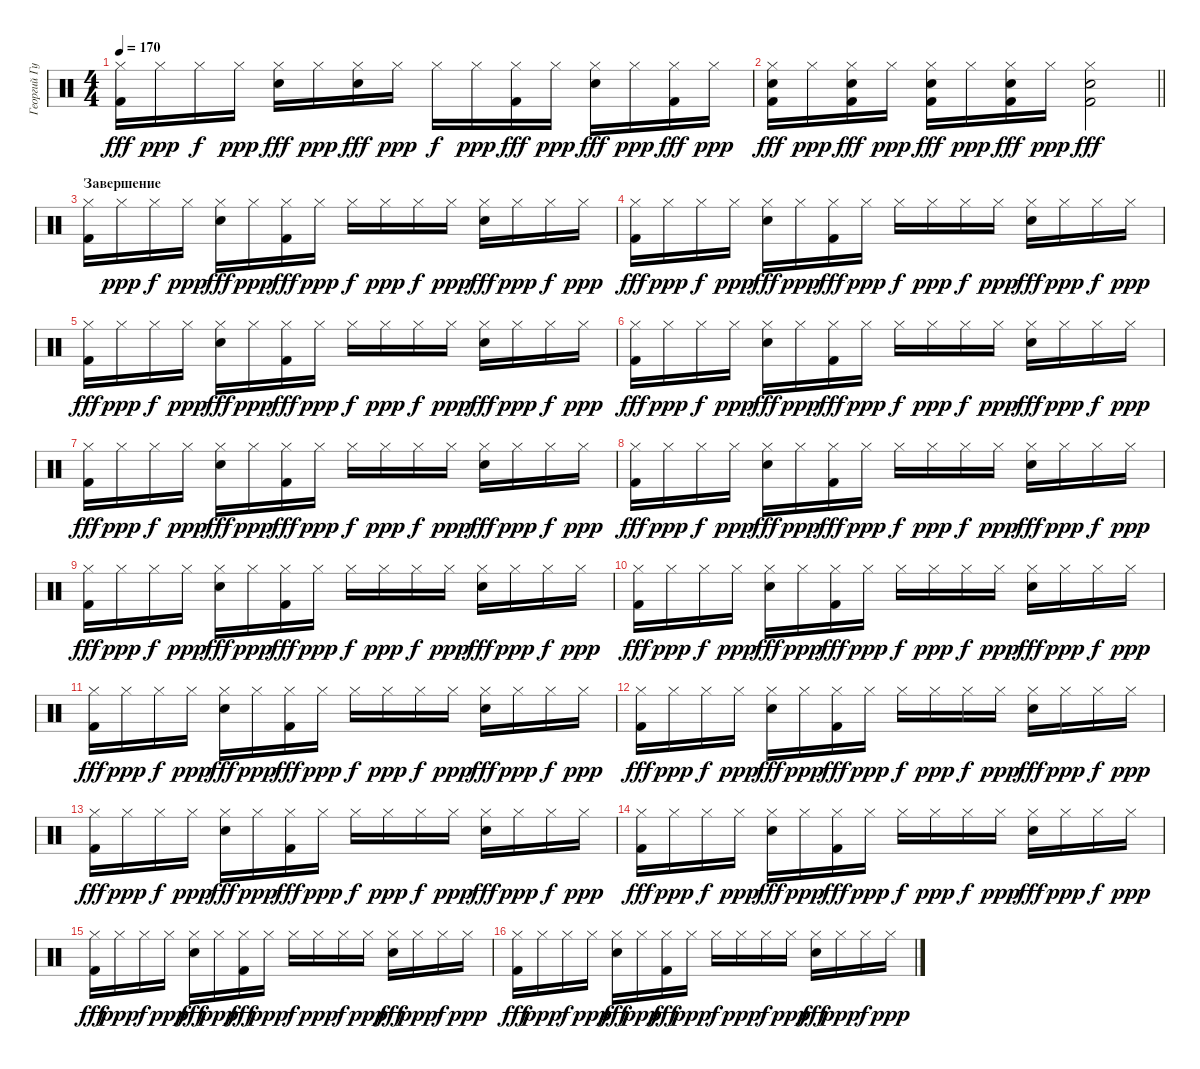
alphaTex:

\track ("Георгий Гурьянов" "Георгий Гу") {instrument percussion}
\staff {score}
\articulation defaults
\ts (4 4)
\tempo 170
\clef neutral
\ks c
("Hi-Hat (closed)" "Kick (hit) 2").16{dy fff} "Hi-Hat (closed)".16{dy ppp} "Hi-Hat (closed)".16{dy f} "Hi-Hat (closed)".16{dy ppp} ("Hi-Hat (closed)" "Electric Snare (hit)").16{dy fff} "Hi-Hat (closed)".16{dy ppp} ("Hi-Hat (closed)" "Electric Snare (hit)").16{dy fff} "Hi-Hat (closed)".16{dy ppp} "Hi-Hat (closed)".16{dy f} "Hi-Hat (closed)".16{dy ppp} ("Hi-Hat (closed)" "Kick (hit) 2").16{dy fff} "Hi-Hat (closed)".16{dy ppp} ("Hi-Hat (closed)" "Electric Snare (hit)").16{dy fff} "Hi-Hat (closed)".16{dy ppp} ("Hi-Hat (closed)" "Kick (hit) 2").16{dy fff} "Hi-Hat (closed)".16{dy ppp} |
\barLineRight lightlight
("Hi-Hat (closed)" "Electric Snare (hit)" "Kick (hit) 2").16{dy fff} "Hi-Hat (closed)".16{dy ppp} ("Hi-Hat (closed)" "Electric Snare (hit)" "Kick (hit) 2").16{dy fff} "Hi-Hat (closed)".16{dy ppp} ("Hi-Hat (closed)" "Kick (hit) 2" "Electric Snare (hit)").16{dy fff} "Hi-Hat (closed)".16{dy ppp} ("Hi-Hat (closed)" "Kick (hit) 2" "Electric Snare (hit)").16{dy fff} "Hi-Hat (closed)".16{dy ppp} ("Hi-Hat (closed)" "Electric Snare (hit)" "Kick (hit) 2").2{dy fff} |
\section ("" "Завершение")
("Hi-Hat (closed)" "Kick (hit) 2").16 "Hi-Hat (closed)".16{dy ppp} "Hi-Hat (closed)".16{dy f} "Hi-Hat (closed)".16{dy ppp} ("Hi-Hat (closed)" "Electric Snare (hit)").16{dy fff} "Hi-Hat (closed)".16{dy ppp} ("Hi-Hat (closed)" "Kick (hit) 2").16{dy fff} "Hi-Hat (closed)".16{dy ppp} "Hi-Hat (closed)".16{dy f} "Hi-Hat (closed)".16{dy ppp} "Hi-Hat (closed)".16{dy f} "Hi-Hat (closed)".16{dy ppp} ("Hi-Hat (closed)" "Electric Snare (hit)").16{dy fff} "Hi-Hat (closed)".16{dy ppp} "Hi-Hat (closed)".16{dy f} "Hi-Hat (closed)".16{dy ppp} |
("Hi-Hat (closed)" "Kick (hit) 2").16{dy fff} "Hi-Hat (closed)".16{dy ppp} "Hi-Hat (closed)".16{dy f} "Hi-Hat (closed)".16{dy ppp} ("Hi-Hat (closed)" "Electric Snare (hit)").16{dy fff} "Hi-Hat (closed)".16{dy ppp} ("Hi-Hat (closed)" "Kick (hit) 2").16{dy fff} "Hi-Hat (closed)".16{dy ppp} "Hi-Hat (closed)".16{dy f} "Hi-Hat (closed)".16{dy ppp} "Hi-Hat (closed)".16{dy f} "Hi-Hat (closed)".16{dy ppp} ("Hi-Hat (closed)" "Electric Snare (hit)").16{dy fff} "Hi-Hat (closed)".16{dy ppp} "Hi-Hat (closed)".16{dy f} "Hi-Hat (closed)".16{dy ppp} |
("Hi-Hat (closed)" "Kick (hit) 2").16{dy fff} "Hi-Hat (closed)".16{dy ppp} "Hi-Hat (closed)".16{dy f} "Hi-Hat (closed)".16{dy ppp} ("Hi-Hat (closed)" "Electric Snare (hit)").16{dy fff} "Hi-Hat (closed)".16{dy ppp} ("Hi-Hat (closed)" "Kick (hit) 2").16{dy fff} "Hi-Hat (closed)".16{dy ppp} "Hi-Hat (closed)".16{dy f} "Hi-Hat (closed)".16{dy ppp} "Hi-Hat (closed)".16{dy f} "Hi-Hat (closed)".16{dy ppp} ("Hi-Hat (closed)" "Electric Snare (hit)").16{dy fff} "Hi-Hat (closed)".16{dy ppp} "Hi-Hat (closed)".16{dy f} "Hi-Hat (closed)".16{dy ppp} |
("Hi-Hat (closed)" "Kick (hit) 2").16{dy fff} "Hi-Hat (closed)".16{dy ppp} "Hi-Hat (closed)".16{dy f} "Hi-Hat (closed)".16{dy ppp} ("Hi-Hat (closed)" "Electric Snare (hit)").16{dy fff} "Hi-Hat (closed)".16{dy ppp} ("Hi-Hat (closed)" "Kick (hit) 2").16{dy fff} "Hi-Hat (closed)".16{dy ppp} "Hi-Hat (closed)".16{dy f} "Hi-Hat (closed)".16{dy ppp} "Hi-Hat (closed)".16{dy f} "Hi-Hat (closed)".16{dy ppp} ("Hi-Hat (closed)" "Electric Snare (hit)").16{dy fff} "Hi-Hat (closed)".16{dy ppp} "Hi-Hat (closed)".16{dy f} "Hi-Hat (closed)".16{dy ppp} |
("Hi-Hat (closed)" "Kick (hit) 2").16{dy fff} "Hi-Hat (closed)".16{dy ppp} "Hi-Hat (closed)".16{dy f} "Hi-Hat (closed)".16{dy ppp} ("Hi-Hat (closed)" "Electric Snare (hit)").16{dy fff} "Hi-Hat (closed)".16{dy ppp} ("Hi-Hat (closed)" "Kick (hit) 2").16{dy fff} "Hi-Hat (closed)".16{dy ppp} "Hi-Hat (closed)".16{dy f} "Hi-Hat (closed)".16{dy ppp} "Hi-Hat (closed)".16{dy f} "Hi-Hat (closed)".16{dy ppp} ("Hi-Hat (closed)" "Electric Snare (hit)").16{dy fff} "Hi-Hat (closed)".16{dy ppp} "Hi-Hat (closed)".16{dy f} "Hi-Hat (closed)".16{dy ppp} |
("Hi-Hat (closed)" "Kick (hit) 2").16{dy fff} "Hi-Hat (closed)".16{dy ppp} "Hi-Hat (closed)".16{dy f} "Hi-Hat (closed)".16{dy ppp} ("Hi-Hat (closed)" "Electric Snare (hit)").16{dy fff} "Hi-Hat (closed)".16{dy ppp} ("Hi-Hat (closed)" "Kick (hit) 2").16{dy fff} "Hi-Hat (closed)".16{dy ppp} "Hi-Hat (closed)".16{dy f} "Hi-Hat (closed)".16{dy ppp} "Hi-Hat (closed)".16{dy f} "Hi-Hat (closed)".16{dy ppp} ("Hi-Hat (closed)" "Electric Snare (hit)").16{dy fff} "Hi-Hat (closed)".16{dy ppp} "Hi-Hat (closed)".16{dy f} "Hi-Hat (closed)".16{dy ppp} |
("Hi-Hat (closed)" "Kick (hit) 2").16{dy fff} "Hi-Hat (closed)".16{dy ppp} "Hi-Hat (closed)".16{dy f} "Hi-Hat (closed)".16{dy ppp} ("Hi-Hat (closed)" "Electric Snare (hit)").16{dy fff} "Hi-Hat (closed)".16{dy ppp} ("Hi-Hat (closed)" "Kick (hit) 2").16{dy fff} "Hi-Hat (closed)".16{dy ppp} "Hi-Hat (closed)".16{dy f} "Hi-Hat (closed)".16{dy ppp} "Hi-Hat (closed)".16{dy f} "Hi-Hat (closed)".16{dy ppp} ("Hi-Hat (closed)" "Electric Snare (hit)").16{dy fff} "Hi-Hat (closed)".16{dy ppp} "Hi-Hat (closed)".16{dy f} "Hi-Hat (closed)".16{dy ppp} |
("Hi-Hat (closed)" "Kick (hit) 2").16{dy fff} "Hi-Hat (closed)".16{dy ppp} "Hi-Hat (closed)".16{dy f} "Hi-Hat (closed)".16{dy ppp} ("Hi-Hat (closed)" "Electric Snare (hit)").16{dy fff} "Hi-Hat (closed)".16{dy ppp} ("Hi-Hat (closed)" "Kick (hit) 2").16{dy fff} "Hi-Hat (closed)".16{dy ppp} "Hi-Hat (closed)".16{dy f} "Hi-Hat (closed)".16{dy ppp} "Hi-Hat (closed)".16{dy f} "Hi-Hat (closed)".16{dy ppp} ("Hi-Hat (closed)" "Electric Snare (hit)").16{dy fff} "Hi-Hat (closed)".16{dy ppp} "Hi-Hat (closed)".16{dy f} "Hi-Hat (closed)".16{dy ppp} |
("Hi-Hat (closed)" "Kick (hit) 2").16{dy fff} "Hi-Hat (closed)".16{dy ppp} "Hi-Hat (closed)".16{dy f} "Hi-Hat (closed)".16{dy ppp} ("Hi-Hat (closed)" "Electric Snare (hit)").16{dy fff} "Hi-Hat (closed)".16{dy ppp} ("Hi-Hat (closed)" "Kick (hit) 2").16{dy fff} "Hi-Hat (closed)".16{dy ppp} "Hi-Hat (closed)".16{dy f} "Hi-Hat (closed)".16{dy ppp} "Hi-Hat (closed)".16{dy f} "Hi-Hat (closed)".16{dy ppp} ("Hi-Hat (closed)" "Electric Snare (hit)").16{dy fff} "Hi-Hat (closed)".16{dy ppp} "Hi-Hat (closed)".16{dy f} "Hi-Hat (closed)".16{dy ppp} |
("Hi-Hat (closed)" "Kick (hit) 2").16{dy fff} "Hi-Hat (closed)".16{dy ppp} "Hi-Hat (closed)".16{dy f} "Hi-Hat (closed)".16{dy ppp} ("Hi-Hat (closed)" "Electric Snare (hit)").16{dy fff} "Hi-Hat (closed)".16{dy ppp} ("Hi-Hat (closed)" "Kick (hit) 2").16{dy fff} "Hi-Hat (closed)".16{dy ppp} "Hi-Hat (closed)".16{dy f} "Hi-Hat (closed)".16{dy ppp} "Hi-Hat (closed)".16{dy f} "Hi-Hat (closed)".16{dy ppp} ("Hi-Hat (closed)" "Electric Snare (hit)").16{dy fff} "Hi-Hat (closed)".16{dy ppp} "Hi-Hat (closed)".16{dy f} "Hi-Hat (closed)".16{dy ppp} |
("Hi-Hat (closed)" "Kick (hit) 2").16{dy fff} "Hi-Hat (closed)".16{dy ppp} "Hi-Hat (closed)".16{dy f} "Hi-Hat (closed)".16{dy ppp} ("Hi-Hat (closed)" "Electric Snare (hit)").16{dy fff} "Hi-Hat (closed)".16{dy ppp} ("Hi-Hat (closed)" "Kick (hit) 2").16{dy fff} "Hi-Hat (closed)".16{dy ppp} "Hi-Hat (closed)".16{dy f} "Hi-Hat (closed)".16{dy ppp} "Hi-Hat (closed)".16{dy f} "Hi-Hat (closed)".16{dy ppp} ("Hi-Hat (closed)" "Electric Snare (hit)").16{dy fff} "Hi-Hat (closed)".16{dy ppp} "Hi-Hat (closed)".16{dy f} "Hi-Hat (closed)".16{dy ppp} |
("Hi-Hat (closed)" "Kick (hit) 2").16{dy fff} "Hi-Hat (closed)".16{dy ppp} "Hi-Hat (closed)".16{dy f} "Hi-Hat (closed)".16{dy ppp} ("Hi-Hat (closed)" "Electric Snare (hit)").16{dy fff} "Hi-Hat (closed)".16{dy ppp} ("Hi-Hat (closed)" "Kick (hit) 2").16{dy fff} "Hi-Hat (closed)".16{dy ppp} "Hi-Hat (closed)".16{dy f} "Hi-Hat (closed)".16{dy ppp} "Hi-Hat (closed)".16{dy f} "Hi-Hat (closed)".16{dy ppp} ("Hi-Hat (closed)" "Electric Snare (hit)").16{dy fff} "Hi-Hat (closed)".16{dy ppp} "Hi-Hat (closed)".16{dy f} "Hi-Hat (closed)".16{dy ppp} |
("Hi-Hat (closed)" "Kick (hit) 2").16{dy fff} "Hi-Hat (closed)".16{dy ppp} "Hi-Hat (closed)".16{dy f} "Hi-Hat (closed)".16{dy ppp} ("Hi-Hat (closed)" "Electric Snare (hit)").16{dy fff} "Hi-Hat (closed)".16{dy ppp} ("Hi-Hat (closed)" "Kick (hit) 2").16{dy fff} "Hi-Hat (closed)".16{dy ppp} "Hi-Hat (closed)".16{dy f} "Hi-Hat (closed)".16{dy ppp} "Hi-Hat (closed)".16{dy f} "Hi-Hat (closed)".16{dy ppp} ("Hi-Hat (closed)" "Electric Snare (hit)").16{dy fff} "Hi-Hat (closed)".16{dy ppp} "Hi-Hat (closed)".16{dy f} "Hi-Hat (closed)".16{dy ppp} |
("Hi-Hat (closed)" "Kick (hit) 2").16{dy fff} "Hi-Hat (closed)".16{dy ppp} "Hi-Hat (closed)".16{dy f} "Hi-Hat (closed)".16{dy ppp} ("Hi-Hat (closed)" "Electric Snare (hit)").16{dy fff} "Hi-Hat (closed)".16{dy ppp} ("Hi-Hat (closed)" "Kick (hit) 2").16{dy fff} "Hi-Hat (closed)".16{dy ppp} "Hi-Hat (closed)".16{dy f} "Hi-Hat (closed)".16{dy ppp} "Hi-Hat (closed)".16{dy f} "Hi-Hat (closed)".16{dy ppp} ("Hi-Hat (closed)" "Electric Snare (hit)").16{dy fff} "Hi-Hat (closed)".16{dy ppp} "Hi-Hat (closed)".16{dy f} "Hi-Hat (closed)".16{dy ppp}
